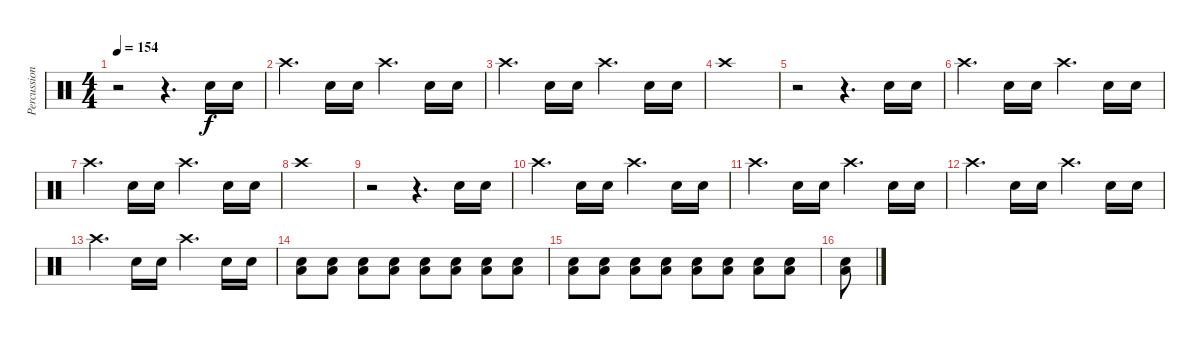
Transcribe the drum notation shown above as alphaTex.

\track ("Percussion" "Percussion") {instrument percussion}
\staff {score}
\articulation defaults
\ts (4 4)
\tempo 154
\clef neutral
\ks c
r.2{dy f} r.4{d} "Snare (hit) 2".16 "Snare (hit) 2".16 |
"Crash high (hit)".4{d} "Snare (hit) 2".16 "Snare (hit) 2".16 "Crash high (hit)".4{d} "Snare (hit) 2".16 "Snare (hit) 2".16 |
"Crash high (hit)".4{d} "Snare (hit) 2".16 "Snare (hit) 2".16 "Crash high (hit)".4{d} "Snare (hit) 2".16 "Snare (hit) 2".16 |
"Crash high (hit)".1 |
r.2 r.4{d} "Snare (hit) 2".16 "Snare (hit) 2".16 |
"Crash high (hit)".4{d} "Snare (hit) 2".16 "Snare (hit) 2".16 "Crash high (hit)".4{d} "Snare (hit) 2".16 "Snare (hit) 2".16 |
"Crash high (hit)".4{d} "Snare (hit) 2".16 "Snare (hit) 2".16 "Crash high (hit)".4{d} "Snare (hit) 2".16 "Snare (hit) 2".16 |
"Crash high (hit)".1 |
r.2 r.4{d} "Snare (hit) 2".16 "Snare (hit) 2".16 |
"Crash high (hit)".4{d} "Snare (hit) 2".16 "Snare (hit) 2".16 "Crash high (hit)".4{d} "Snare (hit) 2".16 "Snare (hit) 2".16 |
"Crash high (hit)".4{d} "Snare (hit) 2".16 "Snare (hit) 2".16 "Crash high (hit)".4{d} "Snare (hit) 2".16 "Snare (hit) 2".16 |
"Crash high (hit)".4{d} "Snare (hit) 2".16 "Snare (hit) 2".16 "Crash high (hit)".4{d} "Snare (hit) 2".16 "Snare (hit) 2".16 |
"Crash high (hit)".4{d} "Snare (hit) 2".16 "Snare (hit) 2".16 "Crash high (hit)".4{d} "Snare (hit) 2".16 "Snare (hit) 2".16 |
("Low Tom (hit)" "Snare (hit) 2").8 ("Low Tom (hit)" "Snare (hit) 2").8 ("Low Tom (hit)" "Snare (hit) 2").8 ("Low Tom (hit)" "Snare (hit) 2").8 ("Low Tom (hit)" "Snare (hit) 2").8 ("Low Tom (hit)" "Snare (hit) 2").8 ("Low Tom (hit)" "Snare (hit) 2").8 ("Low Tom (hit)" "Snare (hit) 2").8 |
("Low Tom (hit)" "Snare (hit) 2").8 ("Low Tom (hit)" "Snare (hit) 2").8 ("Low Tom (hit)" "Snare (hit) 2").8 ("Low Tom (hit)" "Snare (hit) 2").8 ("Low Tom (hit)" "Snare (hit) 2").8 ("Low Tom (hit)" "Snare (hit) 2").8 ("Low Tom (hit)" "Snare (hit) 2").8 ("Low Tom (hit)" "Snare (hit) 2").8 |
("Low Tom (hit)" "Snare (hit) 2").8
